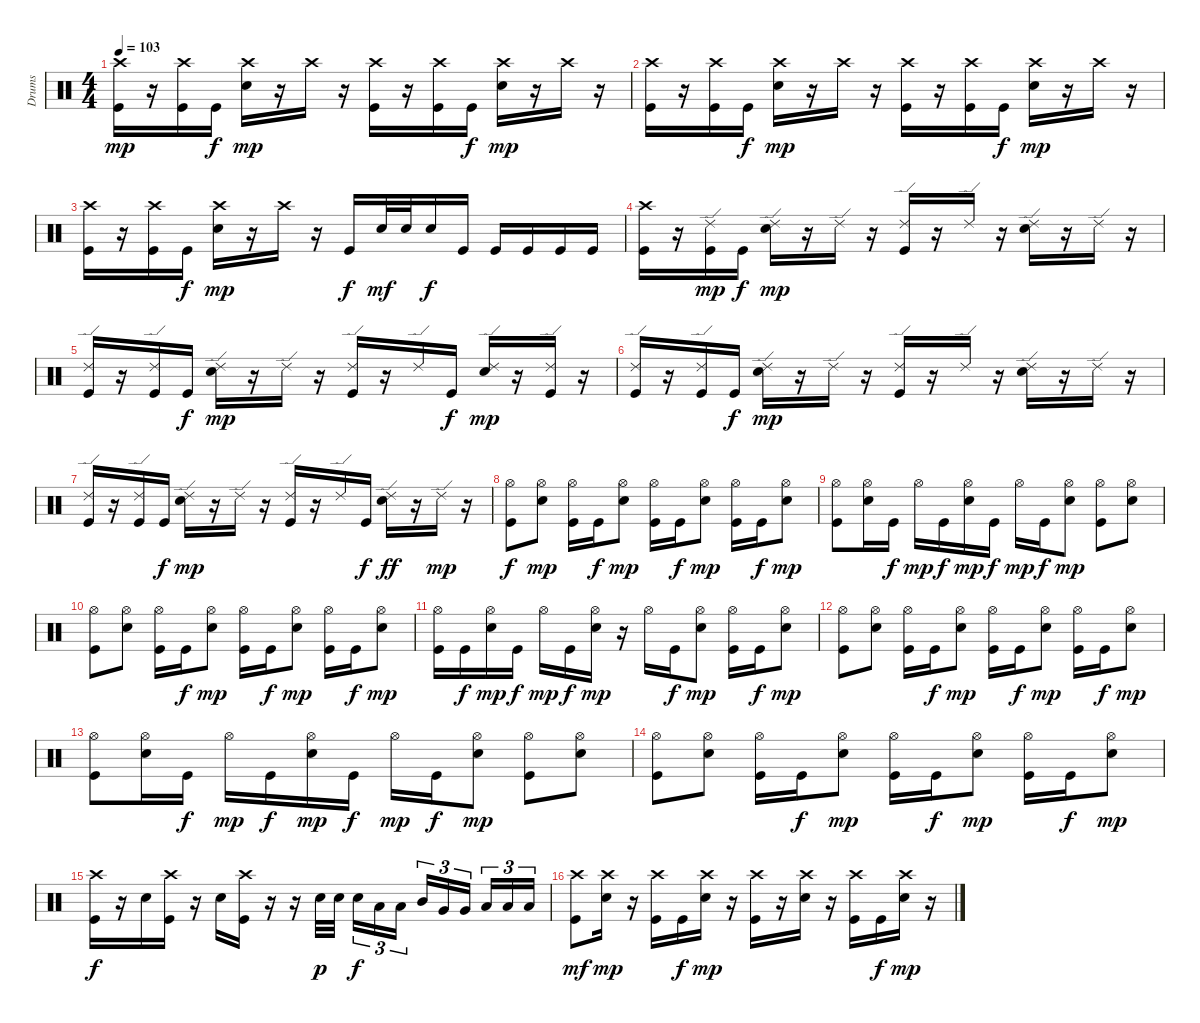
\track ("Drums" "Drums") {instrument percussion}
\staff {score}
\articulation defaults
\ts (4 4)
\tempo 103
\clef neutral
\ks c
("Crash high (hit)" "Kick (hit)").16{dy mp} r.16 ("Crash high (hit)" "Kick (hit)").16 "Kick (hit)".16{dy f} ("Crash high (hit)" "Snare (hit) 2").16{dy mp} r.16 "Crash high (hit)".16 r.16 ("Crash high (hit)" "Kick (hit)").16 r.16 ("Crash high (hit)" "Kick (hit)").16 "Kick (hit)".16{dy f} ("Crash high (hit)" "Snare (hit) 2").16{dy mp} r.16 "Crash high (hit)".16 r.16 |
("Crash high (hit)" "Kick (hit)").16 r.16 ("Crash high (hit)" "Kick (hit)").16 "Kick (hit)".16{dy f} ("Crash high (hit)" "Snare (hit) 2").16{dy mp} r.16 "Crash high (hit)".16 r.16 ("Crash high (hit)" "Kick (hit)").16 r.16 ("Crash high (hit)" "Kick (hit)").16 "Kick (hit)".16{dy f} ("Crash high (hit)" "Snare (hit) 2").16{dy mp} r.16 "Crash high (hit)".16 r.16 |
("Crash high (hit)" "Kick (hit)").16 r.16 ("Crash high (hit)" "Kick (hit)").16 "Kick (hit)".16{dy f} ("Crash high (hit)" "Snare (hit) 2").16{dy mp} r.16 "Crash high (hit)".16 r.16 "Kick (hit)".16{dy f} "Snare (hit) 2".32{dy mf} "Snare (hit) 2".32 "Snare (hit) 2".16{dy f} "Kick (hit)".16 "Kick (hit)".16 "Kick (hit)".16 "Kick (hit)".16 "Kick (hit)".16 |
("Crash high (hit)" "Kick (hit)").16 r.16 ("Ride (edge) 2" "Kick (hit)").16{dy mp} "Kick (hit)".16{dy f} ("Ride (edge) 2" "Snare (hit) 2").16{dy mp} r.16 "Ride (edge) 2".16 r.16 ("Ride (edge) 2" "Kick (hit)").16 r.16 "Ride (edge) 2".16 r.16 ("Ride (edge) 2" "Snare (hit) 2").16 r.16 "Ride (edge) 2".16 r.16 |
("Ride (edge) 2" "Kick (hit)").16 r.16 ("Ride (edge) 2" "Kick (hit)").16 "Kick (hit)".16{dy f} ("Ride (edge) 2" "Snare (hit) 2").16{dy mp} r.16 "Ride (edge) 2".16 r.16 ("Ride (edge) 2" "Kick (hit)").16 r.16 "Ride (edge) 2".16 "Kick (hit)".16{dy f} ("Ride (edge) 2" "Snare (hit) 2").16{dy mp} r.16 ("Ride (edge) 2" "Kick (hit)").16 r.16 |
("Ride (edge) 2" "Kick (hit)").16 r.16 ("Ride (edge) 2" "Kick (hit)").16 "Kick (hit)".16{dy f} ("Ride (edge) 2" "Snare (hit) 2").16{dy mp} r.16 "Ride (edge) 2".16 r.16 ("Ride (edge) 2" "Kick (hit)").16 r.16 "Ride (edge) 2".16 r.16 ("Ride (edge) 2" "Snare (hit) 2").16 r.16 "Ride (edge) 2".16 r.16 |
("Ride (edge) 2" "Kick (hit)").16 r.16 ("Ride (edge) 2" "Kick (hit)").16 "Kick (hit)".16{dy f} ("Ride (edge) 2" "Snare (hit) 2").16{dy mp} r.16 "Ride (edge) 2".16 r.16 ("Ride (edge) 2" "Kick (hit)").16 r.16 "Ride (edge) 2".16 "Kick (hit)".16{dy f} ("Ride (edge) 2" "Snare (hit) 2").16{dy ff} r.16 "Ride (edge) 2".16{dy mp} r.16 |
("Hi-Hat (open)" "Kick (hit)").8{dy f} ("Hi-Hat (open)" "Snare (hit) 2").8{dy mp} ("Hi-Hat (open)" "Kick (hit)").16 "Kick (hit)".16{dy f} ("Hi-Hat (open)" "Snare (hit) 2").8{dy mp} ("Hi-Hat (open)" "Kick (hit)").16 "Kick (hit)".16{dy f} ("Hi-Hat (open)" "Snare (hit) 2").8{dy mp} ("Hi-Hat (open)" "Kick (hit)").16 "Kick (hit)".16{dy f} ("Hi-Hat (open)" "Snare (hit) 2").8{dy mp} |
("Hi-Hat (open)" "Kick (hit)").8 ("Hi-Hat (open)" "Snare (hit) 2").16 "Kick (hit)".16{dy f} "Hi-Hat (open)".16{dy mp} "Kick (hit)".16{dy f} ("Hi-Hat (open)" "Snare (hit) 2").16{dy mp} "Kick (hit)".16{dy f} "Hi-Hat (open)".16{dy mp} "Kick (hit)".16{dy f} ("Hi-Hat (open)" "Snare (hit) 2").8{dy mp} ("Hi-Hat (open)" "Kick (hit)").8 ("Hi-Hat (open)" "Snare (hit) 2").8 |
("Hi-Hat (open)" "Kick (hit)").8 ("Hi-Hat (open)" "Snare (hit) 2").8 ("Hi-Hat (open)" "Kick (hit)").16 "Kick (hit)".16{dy f} ("Hi-Hat (open)" "Snare (hit) 2").8{dy mp} ("Hi-Hat (open)" "Kick (hit)").16 "Kick (hit)".16{dy f} ("Hi-Hat (open)" "Snare (hit) 2").8{dy mp} ("Hi-Hat (open)" "Kick (hit)").16 "Kick (hit)".16{dy f} ("Hi-Hat (open)" "Snare (hit) 2").8{dy mp} |
("Hi-Hat (open)" "Kick (hit)").16 "Kick (hit)".16{dy f} ("Hi-Hat (open)" "Snare (hit) 2").16{dy mp} "Kick (hit)".16{dy f} "Hi-Hat (open)".16{dy mp} "Kick (hit)".16{dy f} ("Hi-Hat (open)" "Snare (hit) 2").16{dy mp} r.16 "Hi-Hat (open)".16 "Kick (hit)".16{dy f} ("Hi-Hat (open)" "Snare (hit) 2").8{dy mp} ("Hi-Hat (open)" "Kick (hit)").16 "Kick (hit)".16{dy f} ("Hi-Hat (open)" "Snare (hit) 2").8{dy mp} |
("Hi-Hat (open)" "Kick (hit)").8 ("Hi-Hat (open)" "Snare (hit) 2").8 ("Hi-Hat (open)" "Kick (hit)").16 "Kick (hit)".16{dy f} ("Hi-Hat (open)" "Snare (hit) 2").8{dy mp} ("Hi-Hat (open)" "Kick (hit)").16 "Kick (hit)".16{dy f} ("Hi-Hat (open)" "Snare (hit) 2").8{dy mp} ("Hi-Hat (open)" "Kick (hit)").16 "Kick (hit)".16{dy f} ("Hi-Hat (open)" "Snare (hit) 2").8{dy mp} |
("Hi-Hat (open)" "Kick (hit)").8 ("Hi-Hat (open)" "Snare (hit) 2").16 "Kick (hit)".16{dy f} "Hi-Hat (open)".16{dy mp} "Kick (hit)".16{dy f} ("Hi-Hat (open)" "Snare (hit) 2").16{dy mp} "Kick (hit)".16{dy f} "Hi-Hat (open)".16{dy mp} "Kick (hit)".16{dy f} ("Hi-Hat (open)" "Snare (hit) 2").8{dy mp} ("Hi-Hat (open)" "Kick (hit)").8 ("Hi-Hat (open)" "Snare (hit) 2").8 |
("Hi-Hat (open)" "Kick (hit)").8 ("Hi-Hat (open)" "Snare (hit) 2").8 ("Hi-Hat (open)" "Kick (hit)").16 "Kick (hit)".16{dy f} ("Hi-Hat (open)" "Snare (hit) 2").8{dy mp} ("Hi-Hat (open)" "Kick (hit)").16 "Kick (hit)".16{dy f} ("Hi-Hat (open)" "Snare (hit) 2").8{dy mp} ("Hi-Hat (open)" "Kick (hit)").16 "Kick (hit)".16{dy f} ("Hi-Hat (open)" "Snare (hit) 2").8{dy mp} |
("Crash high (hit)" "Kick (hit)").16{dy f} r.16 "Snare (hit) 2".16 ("Crash high (hit)" "Kick (hit)").16 r.16 "Snare (hit) 2".16 ("Crash high (hit)" "Kick (hit)").16 r.16 r.16 "Snare (hit) 2".32{dy p} "Snare (hit) 2".32 "Snare (hit) 2".16{tu (3 2) dy f} "Low Tom (hit)".16{tu (3 2)} "Low Tom (hit)".16{tu (3 2)} "Mid Tom (hit)".16{tu (3 2)} "Very Low Tom (hit)".16{tu (3 2)} "Very Low Tom (hit)".16{tu (3 2)} "Low Tom (hit)".16{tu (3 2)} "Low Floor Tom (hit)".16{tu (3 2)} "Low Floor Tom (hit)".16{tu (3 2)} |
("Crash high (hit)" "Kick (hit)").8{dy mf} ("Crash high (hit)" "Snare (hit) 2").16{dy mp} r.16 ("Crash high (hit)" "Kick (hit)").16 "Kick (hit)".16{dy f} ("Crash high (hit)" "Snare (hit) 2").16{dy mp} r.16 ("Crash high (hit)" "Kick (hit)").16 r.16 ("Crash high (hit)" "Snare (hit) 2").16 r.16 ("Crash high (hit)" "Kick (hit)").16 "Kick (hit)".16{dy f} ("Crash high (hit)" "Snare (hit) 2").16{dy mp} r.16
